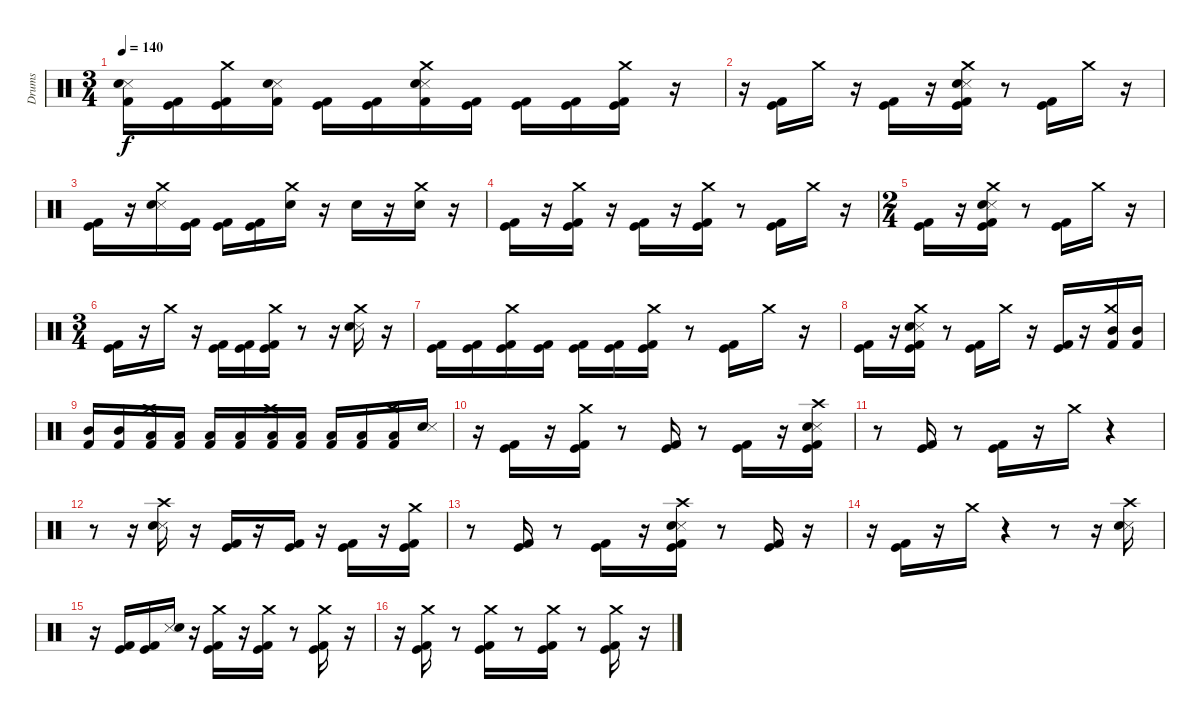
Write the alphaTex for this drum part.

\track ("Drums" "Drums") {instrument percussion}
\staff {score}
\articulation defaults
\ts (3 4)
\tempo 140
\clef neutral
\ks c
("Snare (side stick) 3" "Electric Snare (hit)" "Kick (hit) 2").16{dy f} ("Kick (hit)" "Kick (hit) 2").16 ("Crash medium (hit)" "Kick (hit)" "Kick (hit) 2").16 ("Snare (side stick) 3" "Electric Snare (hit)" "Kick (hit) 2").16 ("Kick (hit)" "Kick (hit) 2").16 ("Kick (hit)" "Kick (hit) 2").16 ("Crash medium (hit)" "Snare (side stick) 3" "Electric Snare (hit)" "Kick (hit) 2").16 ("Kick (hit)" "Kick (hit) 2").16 ("Kick (hit)" "Kick (hit) 2").16 ("Kick (hit)" "Kick (hit) 2").16 ("Crash medium (hit)" "Kick (hit)" "Kick (hit) 2").16 r.16 |
r.16 ("Kick (hit)" "Kick (hit) 2").16 "Crash medium (hit)".16 r.16 ("Kick (hit)" "Kick (hit) 2").16 r.16 ("Crash medium (hit)" "Snare (side stick) 3" "Electric Snare (hit)" "Kick (hit)" "Kick (hit) 2").16 r.8 ("Kick (hit)" "Kick (hit) 2").16 "Crash medium (hit)".16 r.16 |
("Kick (hit)" "Kick (hit) 2").16 r.16 ("Crash medium (hit)" "Snare (side stick) 3" "Electric Snare (hit)").16 ("Kick (hit)" "Kick (hit) 2").16 ("Kick (hit)" "Kick (hit) 2").16 ("Kick (hit)" "Kick (hit) 2").16 ("Crash medium (hit)" "Electric Snare (hit)").16 r.16 "Electric Snare (hit)".16 r.16 ("Crash medium (hit)" "Electric Snare (hit)").16 r.16 |
("Kick (hit)" "Kick (hit) 2").16 r.16 ("Crash medium (hit)" "Kick (hit)" "Kick (hit) 2").16 r.16 ("Kick (hit)" "Kick (hit) 2").16 r.16 ("Crash medium (hit)" "Kick (hit)" "Kick (hit) 2").16 r.8 ("Kick (hit)" "Kick (hit) 2").16 "Crash medium (hit)".16 r.16 |
\ts (2 4)
("Kick (hit)" "Kick (hit) 2").16 r.16 ("Crash medium (hit)" "Snare (side stick) 3" "Electric Snare (hit)" "Kick (hit)" "Kick (hit) 2").16 r.8 ("Kick (hit)" "Kick (hit) 2").16 "Crash medium (hit)".16 r.16 |
\ts (3 4)
("Kick (hit)" "Kick (hit) 2").16 r.16 "Crash medium (hit)".16 r.16 ("Kick (hit)" "Kick (hit) 2").16 ("Kick (hit)" "Kick (hit) 2").16 ("Crash medium (hit)" "Kick (hit)" "Kick (hit) 2").16 r.8 r.16 ("Crash medium (hit)" "Snare (side stick) 3" "Electric Snare (hit)").16 r.16 |
("Kick (hit)" "Kick (hit) 2").16 ("Kick (hit)" "Kick (hit) 2").16 ("Crash medium (hit)" "Kick (hit)" "Kick (hit) 2").16 ("Kick (hit)" "Kick (hit) 2").16 ("Kick (hit)" "Kick (hit) 2").16 ("Kick (hit)" "Kick (hit) 2").16 ("Crash medium (hit)" "Kick (hit)" "Kick (hit) 2").16 r.8 ("Kick (hit)" "Kick (hit) 2").16 "Crash medium (hit)".16 r.16 |
("Kick (hit)" "Kick (hit) 2").16 r.16 ("Crash medium (hit)" "Snare (side stick) 3" "Electric Snare (hit)" "Kick (hit)" "Kick (hit) 2").16 r.8 ("Kick (hit)" "Kick (hit) 2").16 "Crash medium (hit)".16 r.16 ("Kick (hit)" "Kick (hit) 2").16 r.16 ("Crash medium (hit)" "Mid Tom (hit)" "Kick (hit) 2").16 ("Mid Tom (hit)" "Kick (hit) 2").16 |
("Mid Tom (hit)" "Kick (hit) 2").16 ("Mid Tom (hit)" "Kick (hit) 2").16 ("Crash medium (hit)" "Low Tom (hit)" "Kick (hit) 2").16 ("Low Tom (hit)" "Kick (hit) 2").16 ("Low Tom (hit)" "Kick (hit) 2").16 ("Low Tom (hit)" "Kick (hit) 2").16 ("Crash medium (hit)" "Low Floor Tom (hit)" "Kick (hit) 2").16 ("Low Floor Tom (hit)" "Kick (hit) 2").16 ("Low Floor Tom (hit)" "Kick (hit) 2").16 ("Low Floor Tom (hit)" "Kick (hit) 2").16 ("Crash medium (hit)" "Low Floor Tom (hit)" "Kick (hit) 2").16 ("Electric Snare (hit)" "Snare (side stick) 3").16 |
r.16 ("Kick (hit)" "Kick (hit) 2").16 r.16 ("Crash medium (hit)" "Kick (hit)" "Kick (hit) 2").16 r.8 ("Kick (hit)" "Kick (hit) 2").16 r.8 ("Kick (hit)" "Kick (hit) 2").16 r.16 ("Crash high (hit)" "Snare (side stick) 3" "Electric Snare (hit)" "Kick (hit)" "Kick (hit) 2").16 |
r.8 ("Kick (hit)" "Kick (hit) 2").16 r.8 ("Kick (hit)" "Kick (hit) 2").16 r.16 "Crash medium (hit)".16 r.4 |
r.8 r.16 ("Crash high (hit)" "Snare (side stick) 3" "Electric Snare (hit)").16 r.16 ("Kick (hit)" "Kick (hit) 2").16 r.16 ("Kick (hit)" "Kick (hit) 2").16 r.16 ("Kick (hit)" "Kick (hit) 2").16 r.16 ("Crash medium (hit)" "Kick (hit)" "Kick (hit) 2").16 |
r.8 ("Kick (hit)" "Kick (hit) 2").16 r.8 ("Kick (hit)" "Kick (hit) 2").16 r.16 ("Crash high (hit)" "Snare (side stick) 3" "Electric Snare (hit)" "Kick (hit)" "Kick (hit) 2").16 r.8 ("Kick (hit)" "Kick (hit) 2").16 r.16 |
r.16 ("Kick (hit)" "Kick (hit) 2").16 r.16 "Crash medium (hit)".16 r.4 r.8 r.16 ("Crash high (hit)" "Snare (side stick) 3" "Electric Snare (hit)").16 |
r.16 ("Kick (hit)" "Kick (hit) 2").16 ("Kick (hit)" "Kick (hit) 2").16 ("Snare (side stick) 3" "Electric Snare (hit)").16 r.16 ("Crash medium (hit)" "Kick (hit)" "Kick (hit) 2").16 r.16 ("Crash medium (hit)" "Kick (hit)" "Kick (hit) 2").16 r.8 ("Crash medium (hit)" "Kick (hit)" "Kick (hit) 2").16 r.16 |
r.16 ("Crash medium (hit)" "Kick (hit)" "Kick (hit) 2").16 r.8 ("Crash medium (hit)" "Kick (hit)" "Kick (hit) 2").16 r.8 ("Crash medium (hit)" "Kick (hit)" "Kick (hit) 2").16 r.8 ("Crash medium (hit)" "Kick (hit)" "Kick (hit) 2").16 r.16
